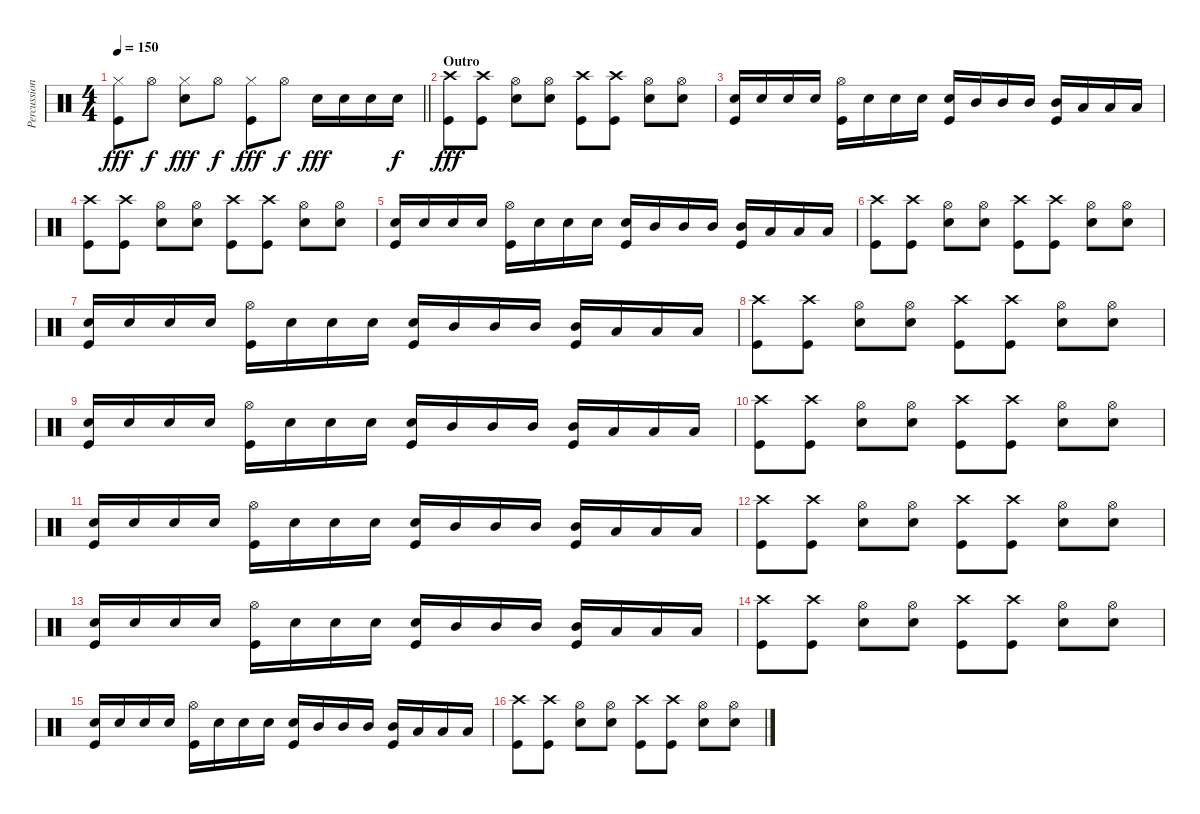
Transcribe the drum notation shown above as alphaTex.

\track ("Percussion" "Percussion") {instrument percussion}
\staff {score}
\articulation defaults
\ts (4 4)
\tempo 150
\clef neutral
\barLineRight lightlight
\ks c
("Hi-Hat (closed)" "Kick (hit)").8{dy fff} "Hi-Hat (open)".8{dy f} ("Hi-Hat (closed)" "Electric Snare (hit)").8{dy fff} "Hi-Hat (open)".8{dy f} ("Hi-Hat (closed)" "Kick (hit)").8{dy fff} "Hi-Hat (open)".8{dy f} "Electric Snare (hit)".16{dy fff} "Electric Snare (hit)".16 "Electric Snare (hit)".16 "Electric Snare (hit)".16{dy f} |
\section ("" "Outro")
("Crash high (hit)" "Kick (hit)").8{dy fff} ("Crash high (hit)" "Kick (hit)").8 ("Hi-Hat (open)" "Electric Snare (hit)").8 ("Hi-Hat (open)" "Electric Snare (hit)").8 ("Crash high (hit)" "Kick (hit)").8 ("Crash high (hit)" "Kick (hit)").8 ("Hi-Hat (open)" "Electric Snare (hit)").8 ("Hi-Hat (open)" "Electric Snare (hit)").8 |
("Electric Snare (hit)" "Kick (hit)").16 "Electric Snare (hit)".16 "Electric Snare (hit)".16 "Electric Snare (hit)".16 ("Hi-Hat (open)" "Kick (hit)").16 "Electric Snare (hit)".16 "Electric Snare (hit)".16 "Electric Snare (hit)".16 ("Electric Snare (hit)" "Kick (hit)").16 "Mid Tom (hit)".16 "Mid Tom (hit)".16 "Mid Tom (hit)".16 ("Mid Tom (hit)" "Kick (hit)").16 "Low Tom (hit)".16 "Low Tom (hit)".16 "Low Tom (hit)".16 |
("Crash high (hit)" "Kick (hit)").8 ("Crash high (hit)" "Kick (hit)").8 ("Hi-Hat (open)" "Electric Snare (hit)").8 ("Hi-Hat (open)" "Electric Snare (hit)").8 ("Crash high (hit)" "Kick (hit)").8 ("Crash high (hit)" "Kick (hit)").8 ("Hi-Hat (open)" "Electric Snare (hit)").8 ("Hi-Hat (open)" "Electric Snare (hit)").8 |
("Electric Snare (hit)" "Kick (hit)").16 "Electric Snare (hit)".16 "Electric Snare (hit)".16 "Electric Snare (hit)".16 ("Hi-Hat (open)" "Kick (hit)").16 "Electric Snare (hit)".16 "Electric Snare (hit)".16 "Electric Snare (hit)".16 ("Electric Snare (hit)" "Kick (hit)").16 "Mid Tom (hit)".16 "Mid Tom (hit)".16 "Mid Tom (hit)".16 ("Mid Tom (hit)" "Kick (hit)").16 "Low Tom (hit)".16 "Low Tom (hit)".16 "Low Tom (hit)".16 |
("Crash high (hit)" "Kick (hit)").8 ("Crash high (hit)" "Kick (hit)").8 ("Hi-Hat (open)" "Electric Snare (hit)").8 ("Hi-Hat (open)" "Electric Snare (hit)").8 ("Crash high (hit)" "Kick (hit)").8 ("Crash high (hit)" "Kick (hit)").8 ("Hi-Hat (open)" "Electric Snare (hit)").8 ("Hi-Hat (open)" "Electric Snare (hit)").8 |
("Electric Snare (hit)" "Kick (hit)").16 "Electric Snare (hit)".16 "Electric Snare (hit)".16 "Electric Snare (hit)".16 ("Hi-Hat (open)" "Kick (hit)").16 "Electric Snare (hit)".16 "Electric Snare (hit)".16 "Electric Snare (hit)".16 ("Electric Snare (hit)" "Kick (hit)").16 "Mid Tom (hit)".16 "Mid Tom (hit)".16 "Mid Tom (hit)".16 ("Mid Tom (hit)" "Kick (hit)").16 "Low Tom (hit)".16 "Low Tom (hit)".16 "Low Tom (hit)".16 |
("Crash high (hit)" "Kick (hit)").8 ("Crash high (hit)" "Kick (hit)").8 ("Hi-Hat (open)" "Electric Snare (hit)").8 ("Hi-Hat (open)" "Electric Snare (hit)").8 ("Crash high (hit)" "Kick (hit)").8 ("Crash high (hit)" "Kick (hit)").8 ("Hi-Hat (open)" "Electric Snare (hit)").8 ("Hi-Hat (open)" "Electric Snare (hit)").8 |
("Electric Snare (hit)" "Kick (hit)").16 "Electric Snare (hit)".16 "Electric Snare (hit)".16 "Electric Snare (hit)".16 ("Hi-Hat (open)" "Kick (hit)").16 "Electric Snare (hit)".16 "Electric Snare (hit)".16 "Electric Snare (hit)".16 ("Electric Snare (hit)" "Kick (hit)").16 "Mid Tom (hit)".16 "Mid Tom (hit)".16 "Mid Tom (hit)".16 ("Mid Tom (hit)" "Kick (hit)").16 "Low Tom (hit)".16 "Low Tom (hit)".16 "Low Tom (hit)".16 |
("Crash high (hit)" "Kick (hit)").8 ("Crash high (hit)" "Kick (hit)").8 ("Hi-Hat (open)" "Electric Snare (hit)").8 ("Hi-Hat (open)" "Electric Snare (hit)").8 ("Crash high (hit)" "Kick (hit)").8 ("Crash high (hit)" "Kick (hit)").8 ("Hi-Hat (open)" "Electric Snare (hit)").8 ("Hi-Hat (open)" "Electric Snare (hit)").8 |
("Electric Snare (hit)" "Kick (hit)").16 "Electric Snare (hit)".16 "Electric Snare (hit)".16 "Electric Snare (hit)".16 ("Hi-Hat (open)" "Kick (hit)").16 "Electric Snare (hit)".16 "Electric Snare (hit)".16 "Electric Snare (hit)".16 ("Electric Snare (hit)" "Kick (hit)").16 "Mid Tom (hit)".16 "Mid Tom (hit)".16 "Mid Tom (hit)".16 ("Mid Tom (hit)" "Kick (hit)").16 "Low Tom (hit)".16 "Low Tom (hit)".16 "Low Tom (hit)".16 |
("Crash high (hit)" "Kick (hit)").8 ("Crash high (hit)" "Kick (hit)").8 ("Hi-Hat (open)" "Electric Snare (hit)").8 ("Hi-Hat (open)" "Electric Snare (hit)").8 ("Crash high (hit)" "Kick (hit)").8 ("Crash high (hit)" "Kick (hit)").8 ("Hi-Hat (open)" "Electric Snare (hit)").8 ("Hi-Hat (open)" "Electric Snare (hit)").8 |
("Electric Snare (hit)" "Kick (hit)").16 "Electric Snare (hit)".16 "Electric Snare (hit)".16 "Electric Snare (hit)".16 ("Hi-Hat (open)" "Kick (hit)").16 "Electric Snare (hit)".16 "Electric Snare (hit)".16 "Electric Snare (hit)".16 ("Electric Snare (hit)" "Kick (hit)").16 "Mid Tom (hit)".16 "Mid Tom (hit)".16 "Mid Tom (hit)".16 ("Mid Tom (hit)" "Kick (hit)").16 "Low Tom (hit)".16 "Low Tom (hit)".16 "Low Tom (hit)".16 |
("Crash high (hit)" "Kick (hit)").8 ("Crash high (hit)" "Kick (hit)").8 ("Hi-Hat (open)" "Electric Snare (hit)").8 ("Hi-Hat (open)" "Electric Snare (hit)").8 ("Crash high (hit)" "Kick (hit)").8 ("Crash high (hit)" "Kick (hit)").8 ("Hi-Hat (open)" "Electric Snare (hit)").8 ("Hi-Hat (open)" "Electric Snare (hit)").8 |
("Electric Snare (hit)" "Kick (hit)").16 "Electric Snare (hit)".16 "Electric Snare (hit)".16 "Electric Snare (hit)".16 ("Hi-Hat (open)" "Kick (hit)").16 "Electric Snare (hit)".16 "Electric Snare (hit)".16 "Electric Snare (hit)".16 ("Electric Snare (hit)" "Kick (hit)").16 "Mid Tom (hit)".16 "Mid Tom (hit)".16 "Mid Tom (hit)".16 ("Mid Tom (hit)" "Kick (hit)").16 "Low Tom (hit)".16 "Low Tom (hit)".16 "Low Tom (hit)".16 |
("Crash high (hit)" "Kick (hit)").8 ("Crash high (hit)" "Kick (hit)").8 ("Hi-Hat (open)" "Electric Snare (hit)").8 ("Hi-Hat (open)" "Electric Snare (hit)").8 ("Crash high (hit)" "Kick (hit)").8 ("Crash high (hit)" "Kick (hit)").8 ("Hi-Hat (open)" "Electric Snare (hit)").8 ("Hi-Hat (open)" "Electric Snare (hit)").8
